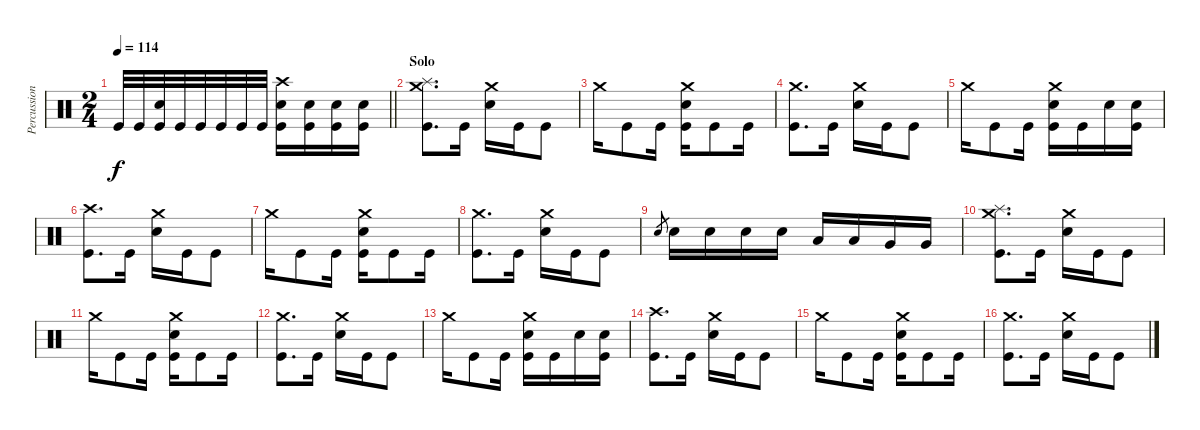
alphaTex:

\track ("Percussion" "Percussion") {instrument percussion}
\staff {score}
\articulation defaults
\ts (2 4)
\tempo 114
\clef neutral
\barLineRight lightlight
\ks c "Kick (hit)".32{dy f} "Kick (hit)".32
("Electric Snare (hit)" "Kick (hit)").32 "Kick (hit)".32 "Kick (hit)".32 "Kick (hit)".32 "Kick (hit)".32 "Kick (hit)".32 ("Crash high (hit)" "Electric Snare (hit)" "Kick (hit)").16 ("Electric Snare (hit)" "Kick (hit)").16 ("Electric Snare (hit)" "Kick (hit)").16 ("Electric Snare (hit)" "Kick (hit)").16 |
\section ("" "Solo")
("Crash medium (hit)" "Splash (hit)" "Kick (hit)").8{d} "Kick (hit)".16 ("Crash medium (hit)" "Electric Snare (hit)").16 "Kick (hit)".16 "Kick (hit)".8 |
"Crash medium (hit)".16 "Kick (hit)".8 "Kick (hit)".16 ("Crash medium (hit)" "Electric Snare (hit)" "Kick (hit)").16 "Kick (hit)".8 "Kick (hit)".16 |
("Crash medium (hit)" "Kick (hit)").8{d} "Kick (hit)".16 ("Crash medium (hit)" "Electric Snare (hit)").16 "Kick (hit)".16 "Kick (hit)".8 |
"Crash medium (hit)".16 "Kick (hit)".8 "Kick (hit)".16 ("Crash medium (hit)" "Electric Snare (hit)" "Kick (hit)").16 "Kick (hit)".16 "Electric Snare (hit)".16 ("Electric Snare (hit)" "Kick (hit)").16 |
("Crash high (hit)" "Kick (hit)").8{d} "Kick (hit)".16 ("Crash medium (hit)" "Electric Snare (hit)").16 "Kick (hit)".16 "Kick (hit)".8 |
"Crash medium (hit)".16 "Kick (hit)".8 "Kick (hit)".16 ("Crash medium (hit)" "Electric Snare (hit)" "Kick (hit)").16 "Kick (hit)".8 "Kick (hit)".16 |
("Crash medium (hit)" "Kick (hit)").8{d} "Kick (hit)".16 ("Crash medium (hit)" "Electric Snare (hit)").16 "Kick (hit)".16 "Kick (hit)".8 |
"Electric Snare (hit)".8{gr} "Electric Snare (hit)".16 "Electric Snare (hit)".16 "Electric Snare (hit)".16 "Electric Snare (hit)".16 "Low Tom (hit)".16 "Low Tom (hit)".16 "Very Low Tom (hit)".16 "Very Low Tom (hit)".16 |
("Crash medium (hit)" "Splash (hit)" "Kick (hit)").8{d} "Kick (hit)".16 ("Crash medium (hit)" "Electric Snare (hit)").16 "Kick (hit)".16 "Kick (hit)".8 |
"Crash medium (hit)".16 "Kick (hit)".8 "Kick (hit)".16 ("Crash medium (hit)" "Electric Snare (hit)" "Kick (hit)").16 "Kick (hit)".8 "Kick (hit)".16 |
("Crash medium (hit)" "Kick (hit)").8{d} "Kick (hit)".16 ("Crash medium (hit)" "Electric Snare (hit)").16 "Kick (hit)".16 "Kick (hit)".8 |
"Crash medium (hit)".16 "Kick (hit)".8 "Kick (hit)".16 ("Crash medium (hit)" "Electric Snare (hit)" "Kick (hit)").16 "Kick (hit)".16 "Electric Snare (hit)".16 ("Electric Snare (hit)" "Kick (hit)").16 |
("Crash high (hit)" "Kick (hit)").8{d} "Kick (hit)".16 ("Crash medium (hit)" "Electric Snare (hit)").16 "Kick (hit)".16 "Kick (hit)".8 |
"Crash medium (hit)".16 "Kick (hit)".8 "Kick (hit)".16 ("Crash medium (hit)" "Electric Snare (hit)" "Kick (hit)").16 "Kick (hit)".8 "Kick (hit)".16 |
("Crash medium (hit)" "Kick (hit)").8{d} "Kick (hit)".16 ("Crash medium (hit)" "Electric Snare (hit)").16 "Kick (hit)".16 "Kick (hit)".8
